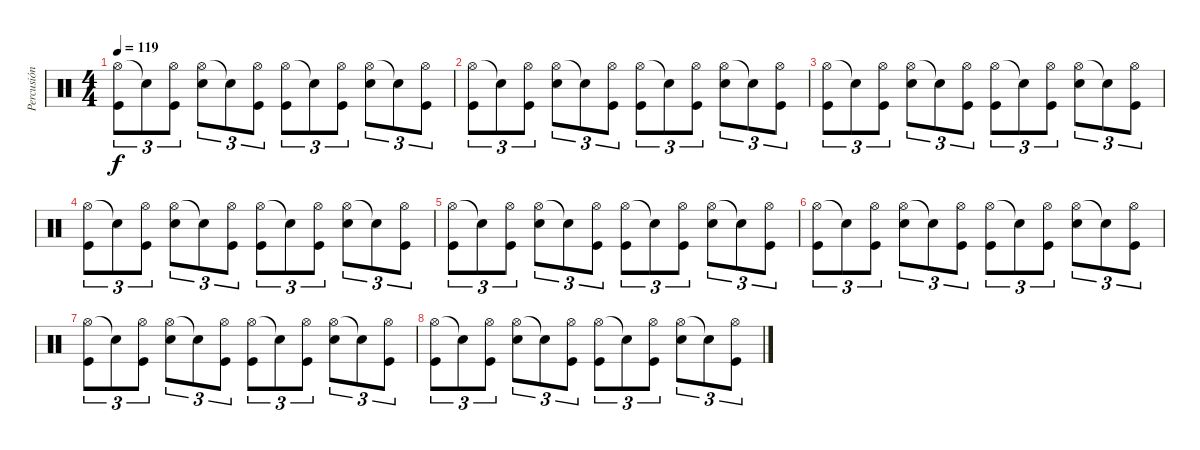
\track ("Percusión" "Percusión") {instrument percussion}
\staff {score}
\articulation defaults
\ts (4 4)
\tempo 119
\clef neutral
\ks c
("Hi-Hat (open)" "Kick (hit)").8{tu (3 2) dy f} "Snare (hit)"{t}.8{tu (3 2)} ("Hi-Hat (open)" "Kick (hit)").8{tu (3 2)} ("Hi-Hat (open)" "Snare (hit) 2").8{tu (3 2)} "Snare (hit)"{t}.8{tu (3 2)} ("Hi-Hat (open)" "Kick (hit)").8{tu (3 2)} ("Hi-Hat (open)" "Kick (hit)").8{tu (3 2)} "Snare (hit)"{t}.8{tu (3 2)} ("Hi-Hat (open)" "Kick (hit)").8{tu (3 2)} ("Hi-Hat (open)" "Snare (hit) 2").8{tu (3 2)} "Snare (hit)"{t}.8{tu (3 2)} ("Hi-Hat (open)" "Kick (hit)").8{tu (3 2)} |
("Hi-Hat (open)" "Kick (hit)").8{tu (3 2)} "Snare (hit)"{t}.8{tu (3 2)} ("Hi-Hat (open)" "Kick (hit)").8{tu (3 2)} ("Hi-Hat (open)" "Snare (hit) 2").8{tu (3 2)} "Snare (hit)"{t}.8{tu (3 2)} ("Hi-Hat (open)" "Kick (hit)").8{tu (3 2)} ("Hi-Hat (open)" "Kick (hit)").8{tu (3 2)} "Snare (hit)"{t}.8{tu (3 2)} ("Hi-Hat (open)" "Kick (hit)").8{tu (3 2)} ("Hi-Hat (open)" "Snare (hit) 2").8{tu (3 2)} "Snare (hit)"{t}.8{tu (3 2)} ("Hi-Hat (open)" "Kick (hit)").8{tu (3 2)} |
("Hi-Hat (open)" "Kick (hit)").8{tu (3 2)} "Snare (hit)"{t}.8{tu (3 2)} ("Hi-Hat (open)" "Kick (hit)").8{tu (3 2)} ("Hi-Hat (open)" "Snare (hit) 2").8{tu (3 2)} "Snare (hit)"{t}.8{tu (3 2)} ("Hi-Hat (open)" "Kick (hit)").8{tu (3 2)} ("Hi-Hat (open)" "Kick (hit)").8{tu (3 2)} "Snare (hit)"{t}.8{tu (3 2)} ("Hi-Hat (open)" "Kick (hit)").8{tu (3 2)} ("Hi-Hat (open)" "Snare (hit) 2").8{tu (3 2)} "Snare (hit)"{t}.8{tu (3 2)} ("Hi-Hat (open)" "Kick (hit)").8{tu (3 2)} |
("Hi-Hat (open)" "Kick (hit)").8{tu (3 2)} "Snare (hit)"{t}.8{tu (3 2)} ("Hi-Hat (open)" "Kick (hit)").8{tu (3 2)} ("Hi-Hat (open)" "Snare (hit) 2").8{tu (3 2)} "Snare (hit)"{t}.8{tu (3 2)} ("Hi-Hat (open)" "Kick (hit)").8{tu (3 2)} ("Hi-Hat (open)" "Kick (hit)").8{tu (3 2)} "Snare (hit)"{t}.8{tu (3 2)} ("Hi-Hat (open)" "Kick (hit)").8{tu (3 2)} ("Hi-Hat (open)" "Snare (hit) 2").8{tu (3 2)} "Snare (hit)"{t}.8{tu (3 2)} ("Hi-Hat (open)" "Kick (hit)").8{tu (3 2)} |
("Hi-Hat (open)" "Kick (hit)").8{tu (3 2) volume 8} "Snare (hit)"{t}.8{tu (3 2)} ("Hi-Hat (open)" "Kick (hit)").8{tu (3 2)} ("Hi-Hat (open)" "Snare (hit) 2").8{tu (3 2)} "Snare (hit)"{t}.8{tu (3 2)} ("Hi-Hat (open)" "Kick (hit)").8{tu (3 2)} ("Hi-Hat (open)" "Kick (hit)").8{tu (3 2)} "Snare (hit)"{t}.8{tu (3 2)} ("Hi-Hat (open)" "Kick (hit)").8{tu (3 2)} ("Hi-Hat (open)" "Snare (hit) 2").8{tu (3 2)} "Snare (hit)"{t}.8{tu (3 2)} ("Hi-Hat (open)" "Kick (hit)").8{tu (3 2)} |
("Hi-Hat (open)" "Kick (hit)").8{tu (3 2)} "Snare (hit)"{t}.8{tu (3 2)} ("Hi-Hat (open)" "Kick (hit)").8{tu (3 2)} ("Hi-Hat (open)" "Snare (hit) 2").8{tu (3 2)} "Snare (hit)"{t}.8{tu (3 2)} ("Hi-Hat (open)" "Kick (hit)").8{tu (3 2)} ("Hi-Hat (open)" "Kick (hit)").8{tu (3 2)} "Snare (hit)"{t}.8{tu (3 2)} ("Hi-Hat (open)" "Kick (hit)").8{tu (3 2)} ("Hi-Hat (open)" "Snare (hit) 2").8{tu (3 2)} "Snare (hit)"{t}.8{tu (3 2)} ("Hi-Hat (open)" "Kick (hit)").8{tu (3 2)} |
("Hi-Hat (open)" "Kick (hit)").8{tu (3 2) volume 0} "Snare (hit)"{t}.8{tu (3 2)} ("Hi-Hat (open)" "Kick (hit)").8{tu (3 2)} ("Hi-Hat (open)" "Snare (hit) 2").8{tu (3 2)} "Snare (hit)"{t}.8{tu (3 2)} ("Hi-Hat (open)" "Kick (hit)").8{tu (3 2)} ("Hi-Hat (open)" "Kick (hit)").8{tu (3 2)} "Snare (hit)"{t}.8{tu (3 2)} ("Hi-Hat (open)" "Kick (hit)").8{tu (3 2)} ("Hi-Hat (open)" "Snare (hit) 2").8{tu (3 2)} "Snare (hit)"{t}.8{tu (3 2)} ("Hi-Hat (open)" "Kick (hit)").8{tu (3 2)} |
("Hi-Hat (open)" "Kick (hit)").8{tu (3 2)} "Snare (hit)"{t}.8{tu (3 2)} ("Hi-Hat (open)" "Kick (hit)").8{tu (3 2)} ("Hi-Hat (open)" "Snare (hit) 2").8{tu (3 2)} "Snare (hit)"{t}.8{tu (3 2)} ("Hi-Hat (open)" "Kick (hit)").8{tu (3 2)} ("Hi-Hat (open)" "Kick (hit)").8{tu (3 2)} "Snare (hit)"{t}.8{tu (3 2)} ("Hi-Hat (open)" "Kick (hit)").8{tu (3 2)} ("Hi-Hat (open)" "Snare (hit) 2").8{tu (3 2)} "Snare (hit)"{t}.8{tu (3 2)} ("Hi-Hat (open)" "Kick (hit)").8{tu (3 2)}
